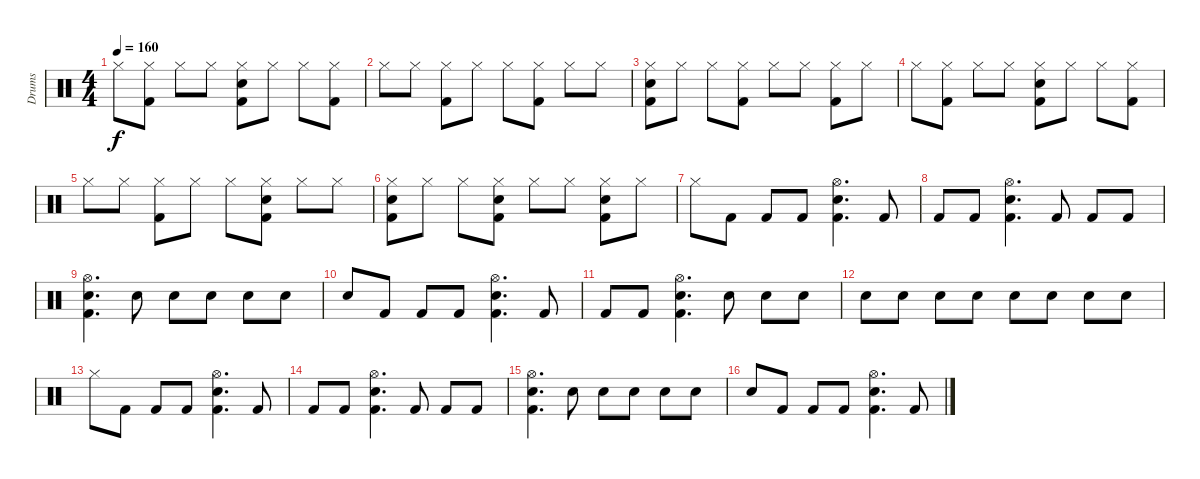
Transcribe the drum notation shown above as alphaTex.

\track ("Drums" "Drums") {instrument percussion}
\staff {score}
\articulation defaults
\ts (4 4)
\tempo 160
\clef neutral
\ks c "Hi-Hat (closed)".8{dy f}
("Kick (hit) 2" "Hi-Hat (closed)").8 "Hi-Hat (closed)".8 "Hi-Hat (closed)".8 ("Kick (hit) 2" "Snare (hit) 2" "Hi-Hat (closed)").8 "Hi-Hat (closed)".8 "Hi-Hat (closed)".8 ("Kick (hit) 2" "Hi-Hat (closed)").8 |
"Hi-Hat (closed)".8 "Hi-Hat (closed)".8 ("Kick (hit) 2" "Hi-Hat (closed)").8 "Hi-Hat (closed)".8 "Hi-Hat (closed)".8 ("Kick (hit) 2" "Hi-Hat (closed)").8 "Hi-Hat (closed)".8 "Hi-Hat (closed)".8 |
("Kick (hit) 2" "Snare (hit) 2" "Hi-Hat (closed)").8 "Hi-Hat (closed)".8 "Hi-Hat (closed)".8 ("Kick (hit) 2" "Hi-Hat (closed)").8 "Hi-Hat (closed)".8 "Hi-Hat (closed)".8 ("Kick (hit) 2" "Hi-Hat (closed)").8 "Hi-Hat (closed)".8 |
"Hi-Hat (closed)".8 ("Kick (hit) 2" "Hi-Hat (closed)").8 "Hi-Hat (closed)".8 "Hi-Hat (closed)".8 ("Kick (hit) 2" "Snare (hit) 2" "Hi-Hat (closed)").8 "Hi-Hat (closed)".8 "Hi-Hat (closed)".8 ("Kick (hit) 2" "Hi-Hat (closed)").8 |
"Hi-Hat (closed)".8 "Hi-Hat (closed)".8 ("Kick (hit) 2" "Hi-Hat (closed)").8 "Hi-Hat (closed)".8 "Hi-Hat (closed)".8 ("Kick (hit) 2" "Snare (hit) 2" "Hi-Hat (closed)").8 "Hi-Hat (closed)".8 "Hi-Hat (closed)".8 |
("Kick (hit) 2" "Snare (hit) 2" "Hi-Hat (closed)").8 "Hi-Hat (closed)".8 "Hi-Hat (closed)".8 ("Kick (hit) 2" "Snare (hit) 2" "Hi-Hat (closed)").8 "Hi-Hat (closed)".8 "Hi-Hat (closed)".8 ("Kick (hit) 2" "Snare (hit) 2" "Hi-Hat (closed)").8 "Hi-Hat (closed)".8 |
"Hi-Hat (closed)".8 "Kick (hit) 2".8 "Kick (hit) 2".8 "Kick (hit) 2".8 ("Kick (hit) 2" "Snare (hit) 2" "Hi-Hat (open)").4{d} "Kick (hit) 2".8 |
"Kick (hit) 2".8 "Kick (hit) 2".8 ("Kick (hit) 2" "Snare (hit) 2" "Hi-Hat (open)").4{d} "Kick (hit) 2".8 "Kick (hit) 2".8 "Kick (hit) 2".8 |
("Kick (hit) 2" "Snare (hit) 2" "Hi-Hat (open)").4{d} "Snare (hit) 2".8 "Snare (hit) 2".8 "Snare (hit) 2".8 "Snare (hit) 2".8 "Snare (hit) 2".8 |
"Snare (hit) 2".8 "Kick (hit) 2".8 "Kick (hit) 2".8 "Kick (hit) 2".8 ("Kick (hit) 2" "Snare (hit) 2" "Hi-Hat (open)").4{d} "Kick (hit) 2".8 |
"Kick (hit) 2".8 "Kick (hit) 2".8 ("Kick (hit) 2" "Snare (hit) 2" "Hi-Hat (open)").4{d} "Snare (hit) 2".8 "Snare (hit) 2".8 "Snare (hit) 2".8 |
"Snare (hit) 2".8 "Snare (hit) 2".8 "Snare (hit) 2".8 "Snare (hit) 2".8 "Snare (hit) 2".8 "Snare (hit) 2".8 "Snare (hit) 2".8 "Snare (hit) 2".8 |
"Hi-Hat (closed)".8 "Kick (hit) 2".8 "Kick (hit) 2".8 "Kick (hit) 2".8 ("Kick (hit) 2" "Snare (hit) 2" "Hi-Hat (open)").4{d} "Kick (hit) 2".8 |
"Kick (hit) 2".8 "Kick (hit) 2".8 ("Kick (hit) 2" "Snare (hit) 2" "Hi-Hat (open)").4{d} "Kick (hit) 2".8 "Kick (hit) 2".8 "Kick (hit) 2".8 |
("Kick (hit) 2" "Snare (hit) 2" "Hi-Hat (open)").4{d} "Snare (hit) 2".8 "Snare (hit) 2".8 "Snare (hit) 2".8 "Snare (hit) 2".8 "Snare (hit) 2".8 |
"Snare (hit) 2".8 "Kick (hit) 2".8 "Kick (hit) 2".8 "Kick (hit) 2".8 ("Kick (hit) 2" "Snare (hit) 2" "Hi-Hat (open)").4{d} "Kick (hit) 2".8
